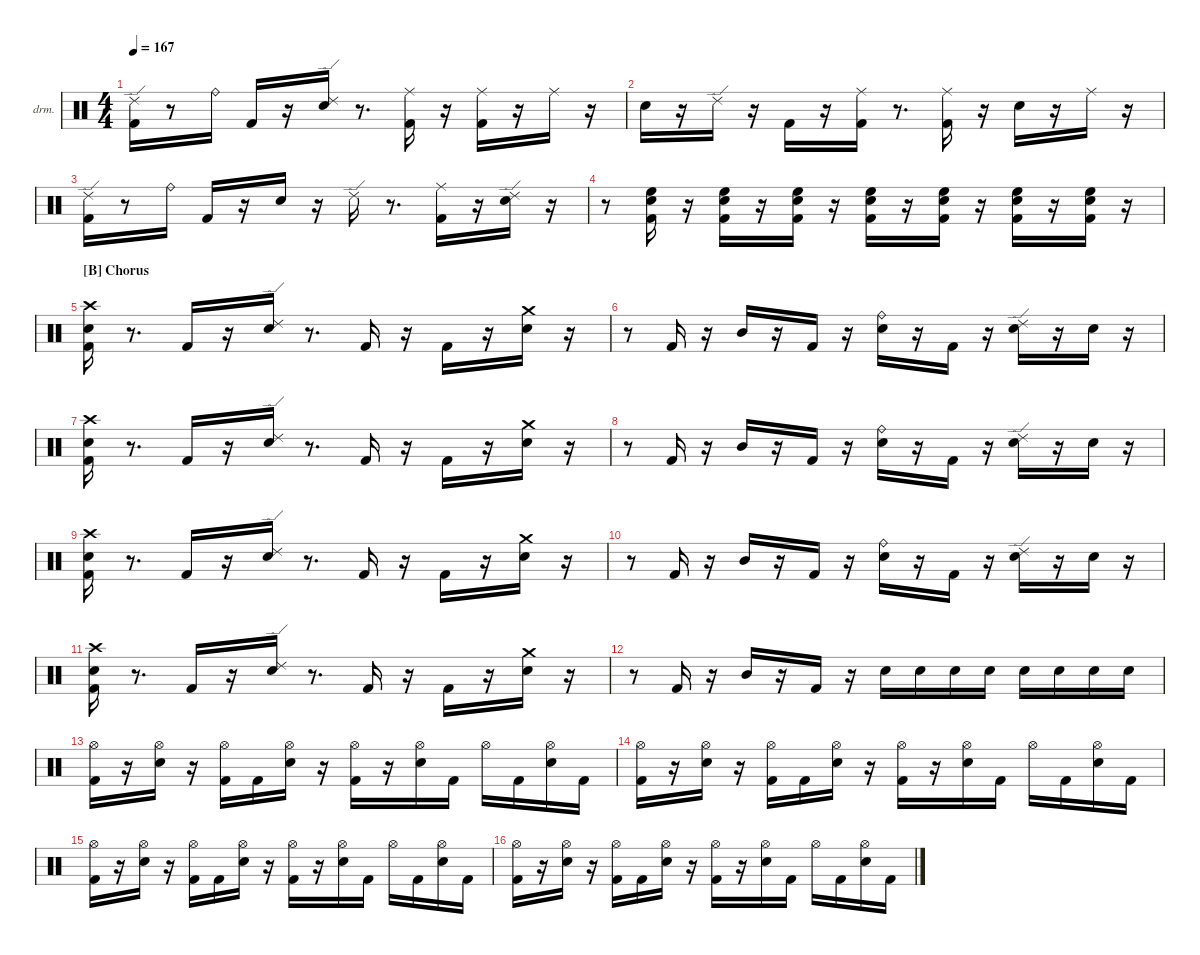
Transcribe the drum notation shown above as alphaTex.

\hideDynamics
\bracketExtendMode nobrackets
\firstSystemTrackNameOrientation horizontal
\otherSystemsTrackNameOrientation horizontal
\track ("Drums" "drm.") {instrument percussion}
\staff {score}
\articulation defaults
\ts (4 4)
\tempo 167
\clef neutral
\ks aminor
("Kick (hit) 2" "Ride (edge) 2").16{dy ff} r.8 "Ride (bell)".16{dy mf} "Kick (hit) 2".16{dy ff} r.16 ("Snare (hit) 2" "Ride (edge) 2").16 r.8{d} ("Kick (hit) 2" "Ride (middle)"{acc #}).16{dy mf} r.16 ("Kick (hit) 2" "Ride (middle)"{acc #}).16{dy ff} r.16 "Ride (middle)"{acc #}.16{dy mp} r.16 |
"Snare (hit) 2".16{dy ff} r.16 "Ride (edge) 2".16{dy f} r.16 "Kick (hit) 2".16{dy mf} r.16 ("Kick (hit) 2" "Ride (middle)"{acc #}).16{dy ff} r.8{d} ("Kick (hit) 2" "Ride (middle)"{acc #}).16 r.16 "Snare (hit) 2".16 r.16 "Ride (middle)"{acc #}.16 r.16 |
("Ride (edge) 2" "Kick (hit) 2").16 r.8 "Ride (bell)".16{dy mf} "Kick (hit) 2".16{dy ff} r.16 "Snare (hit) 2".16 r.16 "Ride (edge) 2".16 r.8{d} ("Ride (middle)"{acc #} "Kick (hit) 2").16 r.16 ("Ride (edge) 2" "Snare (hit) 2").16 r.16 |
r.8 ("Kick (hit) 2" "Snare (hit) 2" "High Floor Tom (hit)").16{dy f} r.16 ("High Floor Tom (hit)" "Kick (hit) 2" "Snare (hit) 2").16{dy ff} r.16 ("Snare (hit) 2" "High Floor Tom (hit)" "Kick (hit) 2").16 r.16 ("Kick (hit) 2" "Snare (hit) 2" "High Floor Tom (hit)").16 r.16 ("Kick (hit) 2" "Snare (hit) 2" "High Floor Tom (hit)").16 r.16 ("High Floor Tom (hit)" "Kick (hit) 2" "Snare (hit) 2").16 r.16 ("Snare (hit) 2" "High Floor Tom (hit)" "Kick (hit) 2").16 r.16 |
\section ("B" "Chorus")
("Kick (hit) 2" "Snare (hit) 2" "Crash high (hit)"{acc #}).16 r.8{d} "Kick (hit) 2".16 r.16 ("Ride (edge) 2" "Snare (hit) 2").16 r.8{d} "Kick (hit) 2".16{dy mf} r.16 "Kick (hit) 2".16{dy ff} r.16 ("Crash medium (hit)" "Snare (hit) 2").16 r.16 |
r.8 "Kick (hit) 2".16 r.16 "Mid Tom (hit)".16 r.16 "Kick (hit) 2".16 r.16 ("Snare (hit) 2" "Ride (bell)").16{dy fff} r.16 "Kick (hit) 2".16{dy ff} r.16 ("Ride (edge) 2" "Snare (hit) 2").16{dy f} r.16 "Snare (hit) 2".16{dy mf} r.16 |
("Kick (hit) 2" "Snare (hit) 2" "Crash high (hit)"{acc #}).16{dy ff} r.8{d} "Kick (hit) 2".16 r.16 ("Snare (hit) 2" "Ride (edge) 2").16 r.8{d} "Kick (hit) 2".16{dy mf} r.16 "Kick (hit) 2".16{dy ff} r.16 ("Crash medium (hit)" "Snare (hit) 2").16 r.16 |
r.8 "Kick (hit) 2".16 r.16 "Mid Tom (hit)".16 r.16 "Kick (hit) 2".16 r.16 ("Snare (hit) 2" "Ride (bell)").16{dy f} r.16 "Kick (hit) 2".16{dy ff} r.16 ("Snare (hit) 2" "Ride (edge) 2").16{dy f} r.16 "Snare (hit) 2".16{dy mf} r.16 |
("Kick (hit) 2" "Snare (hit) 2" "Crash high (hit)"{acc #}).16{dy ff} r.8{d} "Kick (hit) 2".16 r.16 ("Snare (hit) 2" "Ride (edge) 2").16 r.8{d} "Kick (hit) 2".16{dy mf} r.16 "Kick (hit) 2".16{dy ff} r.16 ("Crash medium (hit)" "Snare (hit) 2").16 r.16 |
r.8 "Kick (hit) 2".16 r.16 "Mid Tom (hit)".16 r.16 "Kick (hit) 2".16 r.16 ("Snare (hit) 2" "Ride (bell)").16{dy fff} r.16 "Kick (hit) 2".16{dy ff} r.16 ("Snare (hit) 2" "Ride (edge) 2").16 r.16 "Snare (hit) 2".16{dy mf} r.16 |
("Snare (hit) 2" "Kick (hit) 2" "Crash high (hit)"{acc #}).16{dy ff} r.8{d} "Kick (hit) 2".16 r.16 ("Snare (hit) 2" "Ride (edge) 2").16 r.8{d} "Kick (hit) 2".16{dy mf} r.16 "Kick (hit) 2".16{dy ff} r.16 ("Snare (hit) 2" "Crash medium (hit)").16 r.16 |
r.8 "Kick (hit) 2".16 r.16 "Mid Tom (hit)".16 r.16 "Kick (hit) 2".16 r.16 "Snare (hit) 2".16{dy f} "Snare (hit) 2".16{dy mf} "Snare (hit) 2".16{dy ff} "Snare (hit) 2".16{dy mf} "Snare (hit) 2".16{dy ff} "Snare (hit) 2".16{dy f} "Snare (hit) 2".16{dy fff} "Snare (hit) 2".16 |
("Kick (hit) 2" "Hi-Hat (open)"{acc #}).16 r.16 ("Snare (hit) 2" "Hi-Hat (open)"{acc #}).16{dy ff} r.16 ("Kick (hit) 2" "Hi-Hat (open)"{acc #}).16{dy f} "Kick (hit) 2".16{dy ff} ("Snare (hit) 2" "Hi-Hat (open)"{acc #}).16 r.16 ("Kick (hit) 2" "Hi-Hat (open)"{acc #}).16 r.16 ("Snare (hit) 2" "Hi-Hat (open)"{acc #}).16 "Kick (hit) 2".16 "Hi-Hat (open)"{acc #}.16 "Kick (hit) 2".16 ("Hi-Hat (open)"{acc #} "Snare (hit) 2").16{dy mf} "Kick (hit) 2".16 |
("Hi-Hat (open)"{acc #} "Kick (hit) 2").16{dy ff} r.16 ("Snare (hit) 2" "Hi-Hat (open)"{acc #}).16 r.16 ("Kick (hit) 2" "Hi-Hat (open)"{acc #}).16 "Kick (hit) 2".16 ("Snare (hit) 2" "Hi-Hat (open)"{acc #}).16 r.16 ("Kick (hit) 2" "Hi-Hat (open)"{acc #}).16 r.16 ("Snare (hit) 2" "Hi-Hat (open)"{acc #}).16{dy mf} "Kick (hit) 2".16{dy ff} "Hi-Hat (open)"{acc #}.16 "Kick (hit) 2".16 ("Snare (hit) 2" "Hi-Hat (open)"{acc #}).16{dy f} "Kick (hit) 2".16{dy ff} |
("Hi-Hat (open)"{acc #} "Kick (hit) 2").16{dy fff} r.16 ("Hi-Hat (open)"{acc #} "Snare (hit) 2").16{dy mf} r.16 ("Kick (hit) 2" "Hi-Hat (open)"{acc #}).16{dy f} "Kick (hit) 2".16{dy ff} ("Snare (hit) 2" "Hi-Hat (open)"{acc #}).16 r.16 ("Kick (hit) 2" "Hi-Hat (open)"{acc #}).16 r.16 ("Snare (hit) 2" "Hi-Hat (open)"{acc #}).16 "Kick (hit) 2".16 "Hi-Hat (open)"{acc #}.16 "Kick (hit) 2".16 ("Snare (hit) 2" "Hi-Hat (open)"{acc #}).16 "Kick (hit) 2".16{dy mf} |
("Kick (hit) 2" "Hi-Hat (open)"{acc #}).16{dy ff} r.16 ("Snare (hit) 2" "Hi-Hat (open)"{acc #}).16{dy mf} r.16 ("Kick (hit) 2" "Hi-Hat (open)"{acc #}).16{dy ff} "Kick (hit) 2".16 ("Hi-Hat (open)"{acc #} "Snare (hit) 2").16 r.16 ("Hi-Hat (open)"{acc #} "Kick (hit) 2").16 r.16 ("Hi-Hat (open)"{acc #} "Snare (hit) 2").16 "Kick (hit) 2".16 "Hi-Hat (open)"{acc #}.16 "Kick (hit) 2".16 ("Hi-Hat (open)"{acc #} "Snare (hit) 2").16{dy f} "Kick (hit) 2".16{dy ff}
